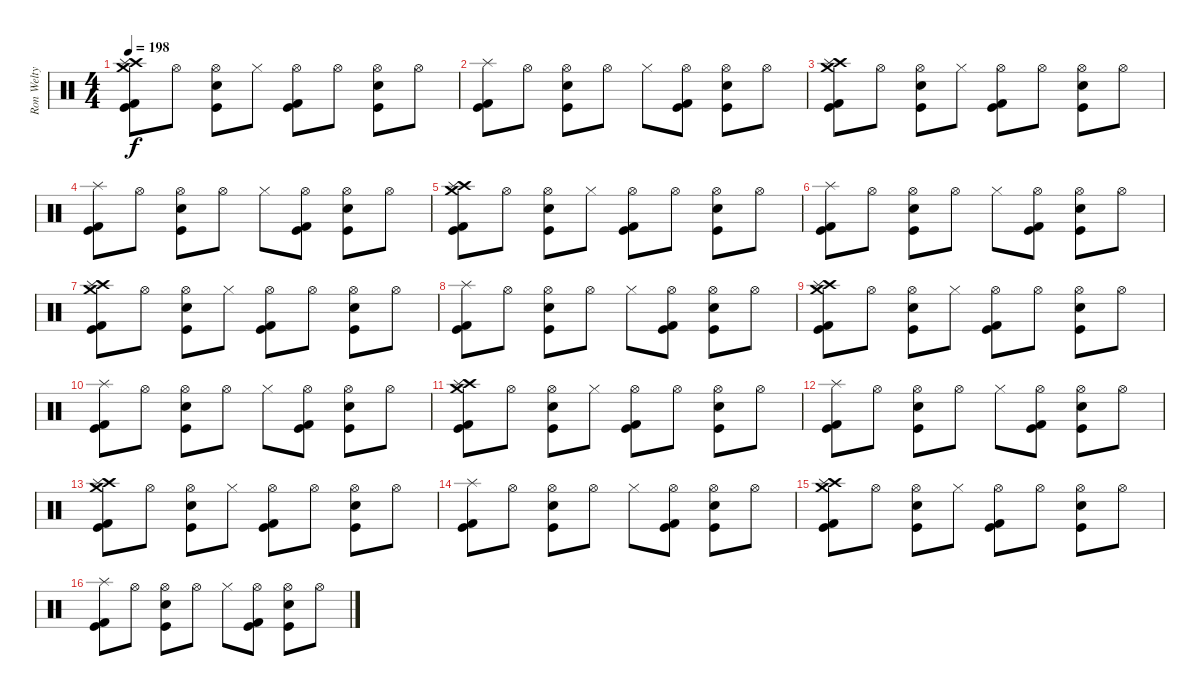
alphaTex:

\track ("Ron Welty" "Ron Welty") {instrument percussion}
\staff {score}
\articulation defaults
\ts (4 4)
\tempo 198
\clef neutral
\ks c
("Crash medium (hit)" "Crash high (hit)" "Splash (hit)" "Kick (hit) 2" "Kick (hit)").8{dy f} "Hi-Hat (open)".8 ("Hi-Hat (open)" "Electric Snare (hit)" "Kick (hit)").8 "Hi-Hat (closed)".8 ("Hi-Hat (open)" "Kick (hit) 2" "Kick (hit)").8 "Hi-Hat (open)".8 ("Hi-Hat (open)" "Electric Snare (hit)" "Kick (hit)").8 "Hi-Hat (open)".8 |
("Splash (hit)" "Kick (hit) 2" "Kick (hit)").8 "Hi-Hat (open)".8 ("Hi-Hat (open)" "Electric Snare (hit)" "Kick (hit)").8 "Hi-Hat (open)".8 "Hi-Hat (closed)".8 ("Hi-Hat (open)" "Kick (hit) 2" "Kick (hit)").8 ("Hi-Hat (open)" "Electric Snare (hit)" "Kick (hit)").8 "Hi-Hat (open)".8 |
("Crash medium (hit)" "Crash high (hit)" "Splash (hit)" "Kick (hit) 2" "Kick (hit)").8 "Hi-Hat (open)".8 ("Hi-Hat (open)" "Electric Snare (hit)" "Kick (hit)").8 "Hi-Hat (closed)".8 ("Hi-Hat (open)" "Kick (hit) 2" "Kick (hit)").8 "Hi-Hat (open)".8 ("Hi-Hat (open)" "Electric Snare (hit)" "Kick (hit)").8 "Hi-Hat (open)".8 |
("Splash (hit)" "Kick (hit) 2" "Kick (hit)").8 "Hi-Hat (open)".8 ("Hi-Hat (open)" "Electric Snare (hit)" "Kick (hit)").8 "Hi-Hat (open)".8 "Hi-Hat (closed)".8 ("Hi-Hat (open)" "Kick (hit) 2" "Kick (hit)").8 ("Hi-Hat (open)" "Electric Snare (hit)" "Kick (hit)").8 "Hi-Hat (open)".8 |
("Crash medium (hit)" "Crash high (hit)" "Splash (hit)" "Kick (hit) 2" "Kick (hit)").8 "Hi-Hat (open)".8 ("Hi-Hat (open)" "Electric Snare (hit)" "Kick (hit)").8 "Hi-Hat (closed)".8 ("Hi-Hat (open)" "Kick (hit) 2" "Kick (hit)").8 "Hi-Hat (open)".8 ("Hi-Hat (open)" "Electric Snare (hit)" "Kick (hit)").8 "Hi-Hat (open)".8 |
("Splash (hit)" "Kick (hit) 2" "Kick (hit)").8 "Hi-Hat (open)".8 ("Hi-Hat (open)" "Electric Snare (hit)" "Kick (hit)").8 "Hi-Hat (open)".8 "Hi-Hat (closed)".8 ("Hi-Hat (open)" "Kick (hit) 2" "Kick (hit)").8 ("Hi-Hat (open)" "Electric Snare (hit)" "Kick (hit)").8 "Hi-Hat (open)".8 |
("Crash medium (hit)" "Crash high (hit)" "Splash (hit)" "Kick (hit) 2" "Kick (hit)").8 "Hi-Hat (open)".8 ("Hi-Hat (open)" "Electric Snare (hit)" "Kick (hit)").8 "Hi-Hat (closed)".8 ("Hi-Hat (open)" "Kick (hit) 2" "Kick (hit)").8 "Hi-Hat (open)".8 ("Hi-Hat (open)" "Electric Snare (hit)" "Kick (hit)").8 "Hi-Hat (open)".8 |
("Splash (hit)" "Kick (hit) 2" "Kick (hit)").8 "Hi-Hat (open)".8 ("Hi-Hat (open)" "Electric Snare (hit)" "Kick (hit)").8 "Hi-Hat (open)".8 "Hi-Hat (closed)".8 ("Hi-Hat (open)" "Kick (hit) 2" "Kick (hit)").8 ("Hi-Hat (open)" "Electric Snare (hit)" "Kick (hit)").8 "Hi-Hat (open)".8 |
("Crash medium (hit)" "Crash high (hit)" "Splash (hit)" "Kick (hit) 2" "Kick (hit)").8 "Hi-Hat (open)".8 ("Hi-Hat (open)" "Electric Snare (hit)" "Kick (hit)").8 "Hi-Hat (closed)".8 ("Hi-Hat (open)" "Kick (hit) 2" "Kick (hit)").8 "Hi-Hat (open)".8 ("Hi-Hat (open)" "Electric Snare (hit)" "Kick (hit)").8 "Hi-Hat (open)".8 |
("Splash (hit)" "Kick (hit) 2" "Kick (hit)").8 "Hi-Hat (open)".8 ("Hi-Hat (open)" "Electric Snare (hit)" "Kick (hit)").8 "Hi-Hat (open)".8 "Hi-Hat (closed)".8 ("Hi-Hat (open)" "Kick (hit) 2" "Kick (hit)").8 ("Hi-Hat (open)" "Electric Snare (hit)" "Kick (hit)").8 "Hi-Hat (open)".8 |
("Crash medium (hit)" "Crash high (hit)" "Splash (hit)" "Kick (hit) 2" "Kick (hit)").8 "Hi-Hat (open)".8 ("Hi-Hat (open)" "Electric Snare (hit)" "Kick (hit)").8 "Hi-Hat (closed)".8 ("Hi-Hat (open)" "Kick (hit) 2" "Kick (hit)").8 "Hi-Hat (open)".8 ("Hi-Hat (open)" "Electric Snare (hit)" "Kick (hit)").8 "Hi-Hat (open)".8 |
("Splash (hit)" "Kick (hit) 2" "Kick (hit)").8 "Hi-Hat (open)".8 ("Hi-Hat (open)" "Electric Snare (hit)" "Kick (hit)").8 "Hi-Hat (open)".8 "Hi-Hat (closed)".8 ("Hi-Hat (open)" "Kick (hit) 2" "Kick (hit)").8 ("Hi-Hat (open)" "Electric Snare (hit)" "Kick (hit)").8 "Hi-Hat (open)".8 |
("Crash medium (hit)" "Crash high (hit)" "Splash (hit)" "Kick (hit) 2" "Kick (hit)").8 "Hi-Hat (open)".8 ("Hi-Hat (open)" "Electric Snare (hit)" "Kick (hit)").8 "Hi-Hat (closed)".8 ("Hi-Hat (open)" "Kick (hit) 2" "Kick (hit)").8 "Hi-Hat (open)".8 ("Hi-Hat (open)" "Electric Snare (hit)" "Kick (hit)").8 "Hi-Hat (open)".8 |
("Splash (hit)" "Kick (hit) 2" "Kick (hit)").8 "Hi-Hat (open)".8 ("Hi-Hat (open)" "Electric Snare (hit)" "Kick (hit)").8 "Hi-Hat (open)".8 "Hi-Hat (closed)".8 ("Hi-Hat (open)" "Kick (hit) 2" "Kick (hit)").8 ("Hi-Hat (open)" "Electric Snare (hit)" "Kick (hit)").8 "Hi-Hat (open)".8 |
("Crash medium (hit)" "Crash high (hit)" "Splash (hit)" "Kick (hit) 2" "Kick (hit)").8 "Hi-Hat (open)".8 ("Hi-Hat (open)" "Electric Snare (hit)" "Kick (hit)").8 "Hi-Hat (closed)".8 ("Hi-Hat (open)" "Kick (hit) 2" "Kick (hit)").8 "Hi-Hat (open)".8 ("Hi-Hat (open)" "Electric Snare (hit)" "Kick (hit)").8 "Hi-Hat (open)".8 |
("Splash (hit)" "Kick (hit) 2" "Kick (hit)").8 "Hi-Hat (open)".8 ("Hi-Hat (open)" "Electric Snare (hit)" "Kick (hit)").8 "Hi-Hat (open)".8 "Hi-Hat (closed)".8 ("Hi-Hat (open)" "Kick (hit) 2" "Kick (hit)").8 ("Hi-Hat (open)" "Electric Snare (hit)" "Kick (hit)").8 "Hi-Hat (open)".8
